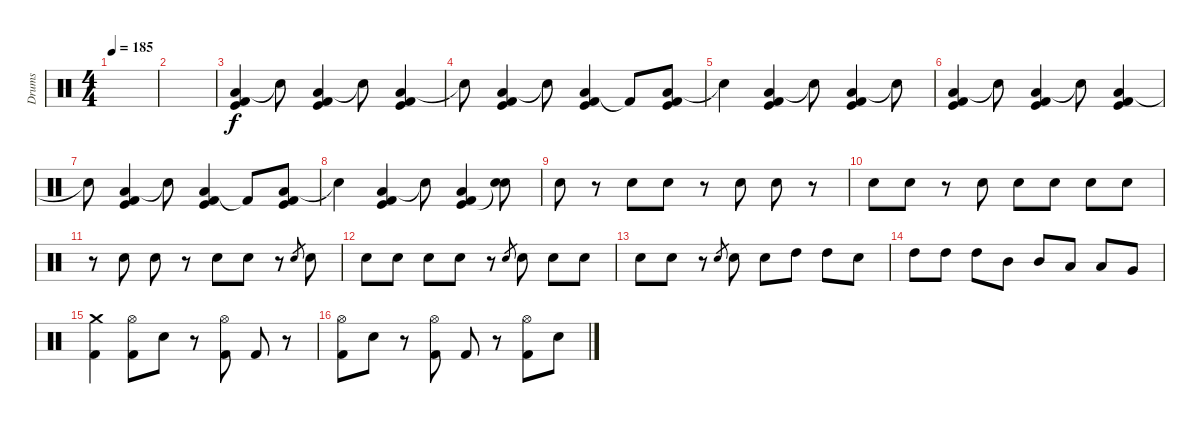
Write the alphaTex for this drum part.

\track ("Drums" "Drums") {instrument percussion}
\staff {score}
\articulation defaults
\ts (4 4)
\tempo 185
\clef neutral
\ks c
|
|
("Low Floor Tom (hit)" "Kick (hit)" "Kick (hit) 2").4 "Snare (hit)"{t}.8 ("Low Floor Tom (hit)" "Kick (hit)" "Kick (hit) 2").4 "Snare (hit)"{t}.8 ("Low Floor Tom (hit)" "Kick (hit)" "Kick (hit) 2").4 |
"Snare (hit)"{t}.8 ("Low Floor Tom (hit)" "Kick (hit)" "Kick (hit) 2").4 "Snare (hit)"{t}.8 ("Low Floor Tom (hit)" "Kick (hit)" "Kick (hit) 2").4 "Kick (hit) 2"{t}.8 ("Low Floor Tom (hit)" "Kick (hit)" "Kick (hit) 2").8 |
"Snare (hit)"{t}.4 ("Low Floor Tom (hit)" "Kick (hit)" "Kick (hit) 2").4 "Snare (hit)"{t}.8 ("Low Floor Tom (hit)" "Kick (hit)" "Kick (hit) 2").4 "Snare (hit)"{t}.8 |
("Low Floor Tom (hit)" "Kick (hit)" "Kick (hit) 2").4 "Snare (hit)"{t}.8 ("Low Floor Tom (hit)" "Kick (hit)" "Kick (hit) 2").4 "Snare (hit)"{t}.8 ("Low Floor Tom (hit)" "Kick (hit)" "Kick (hit) 2").4 |
"Snare (hit)"{t}.8 ("Low Floor Tom (hit)" "Kick (hit)" "Kick (hit) 2").4 "Snare (hit)"{t}.8 ("Low Floor Tom (hit)" "Kick (hit)" "Kick (hit) 2").4 "Kick (hit) 2"{t}.8 ("Low Floor Tom (hit)" "Kick (hit)" "Kick (hit) 2").8 |
"Snare (hit)"{t}.4 ("Low Floor Tom (hit)" "Kick (hit)" "Kick (hit) 2").4 "Snare (hit)"{t}.8 ("Low Floor Tom (hit)" "Kick (hit)" "Kick (hit) 2").4 ("Electric Snare (hit)" "Snare (hit)"{t}).8 |
"Electric Snare (hit)".8 r.8 "Electric Snare (hit)".8 "Electric Snare (hit)".8 r.8 "Electric Snare (hit)".8 "Electric Snare (hit)".8 r.8 |
"Electric Snare (hit)".8 "Electric Snare (hit)".8 r.8 "Electric Snare (hit)".8 "Electric Snare (hit)".8 "Electric Snare (hit)".8 "Electric Snare (hit)".8 "Electric Snare (hit)".8 |
r.8 "Electric Snare (hit)".8 "Electric Snare (hit)".8 r.8 "Electric Snare (hit)".8 "Electric Snare (hit)".8 r.8 "Electric Snare (hit)".8{gr} "Electric Snare (hit)".8 |
"Electric Snare (hit)".8 "Electric Snare (hit)".8 "Electric Snare (hit)".8 "Electric Snare (hit)".8 r.8 "Electric Snare (hit)".8{gr} "Electric Snare (hit)".8 "Electric Snare (hit)".8 "Electric Snare (hit)".8 |
"Electric Snare (hit)".8 "Electric Snare (hit)".8 r.8 "Electric Snare (hit)".8{gr} "Electric Snare (hit)".8 "Electric Snare (hit)".8 "High Tom (hit)".8 "High Tom (hit)".8 "Electric Snare (hit)".8 |
"High Tom (hit)".8 "High Tom (hit)".8 "High Tom (hit)".8 "Mid Tom (hit)".8 "Mid Tom (hit)".8 "Low Tom (hit)".8 "Low Tom (hit)".8 "Very Low Tom (hit)".8 |
("Crash medium (hit)" "Kick (hit) 2").4 ("Hi-Hat (open)" "Kick (hit) 2").8 "Electric Snare (hit)".8 r.8 ("Hi-Hat (open)" "Kick (hit) 2").8 "Kick (hit) 2".8 r.8 |
("Hi-Hat (open)" "Kick (hit) 2").8 "Electric Snare (hit)".8 r.8 ("Hi-Hat (open)" "Kick (hit) 2").8 "Kick (hit) 2".8 r.8 ("Hi-Hat (open)" "Kick (hit) 2").8 "Electric Snare (hit)".8
